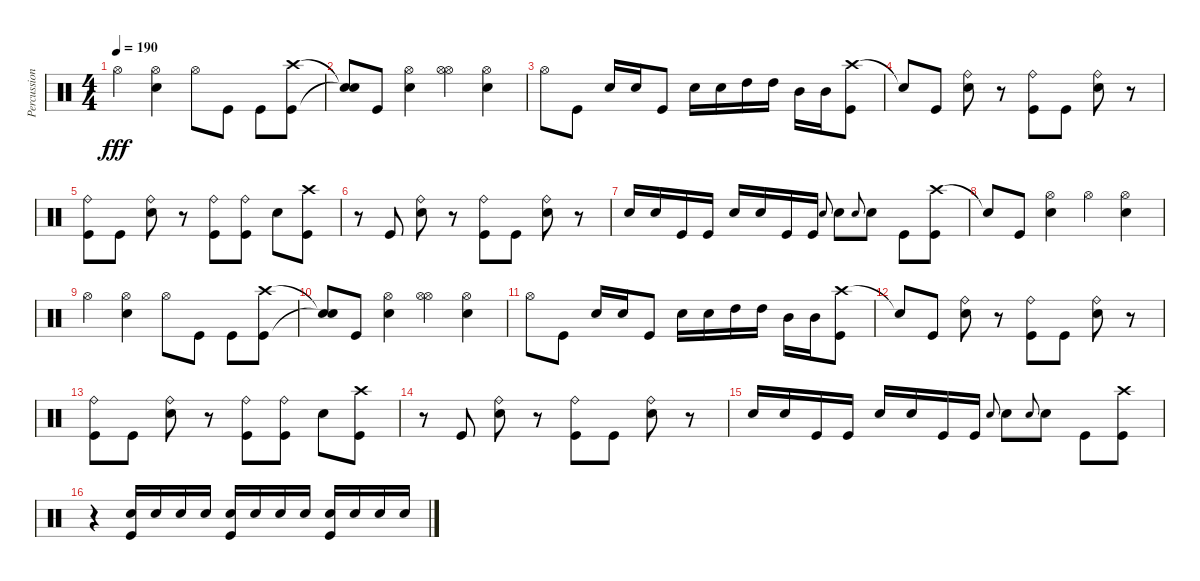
\track ("Percussion" "Percussion") {instrument percussion}
\staff {score}
\articulation defaults
\ts (4 4)
\tempo 190
\clef neutral
\ks c "Hi-Hat (open)".4{dy fff}
("Hi-Hat (open)" "Snare (hit) 2").4 "Hi-Hat (open)".8 "Kick (hit)".8 "Kick (hit)".8 ("Crash high (hit)" "Kick (hit)").8 |
("Snare (hit)"{t} "Snare (hit)"{t}).8 "Kick (hit)".8 ("Hi-Hat (open)" "Snare (hit) 2").4 ("Hi-Hat (open)" "Hi-Hat (open)").4 ("Hi-Hat (open)" "Snare (hit) 2").4 |
"Hi-Hat (open)".8 "Kick (hit)".8 "Snare (hit) 2".16 "Snare (hit) 2".16 "Kick (hit)".8 "Snare (hit) 2".16 "Snare (hit) 2".16 "High Tom (hit)".16 "High Tom (hit)".16 "Mid Tom (hit)".16 "Mid Tom (hit)".16 ("Crash high (hit)" "Kick (hit)").8 |
"Snare (hit)"{t}.8 "Kick (hit)".8 ("Ride (bell)" "Snare (hit) 2").8 r.8 ("Ride (bell)" "Kick (hit)").8 "Kick (hit)".8 ("Ride (bell)" "Snare (hit) 2").8 r.8 |
("Ride (bell)" "Kick (hit)").8 "Kick (hit)".8 ("Ride (bell)" "Snare (hit) 2").8 r.8 ("Ride (bell)" "Kick (hit)").8 ("Ride (bell)" "Kick (hit)").8 "Snare (hit) 2".8 ("Crash high (hit)" "Kick (hit)").8 |
r.8 "Kick (hit)".8 ("Ride (bell)" "Snare (hit) 2").8 r.8 ("Ride (bell)" "Kick (hit)").8 "Kick (hit)".8 ("Ride (bell)" "Snare (hit) 2").8 r.8 |
"Snare (hit) 2".16 "Snare (hit) 2".16 "Kick (hit)".16 "Kick (hit)".16 "Snare (hit) 2".16 "Snare (hit) 2".16 "Kick (hit)".16 "Kick (hit)".16 "Snare (hit) 2".8{gr onbeat} "Snare (hit) 2".8 "Snare (hit) 2".8{gr onbeat} "Snare (hit) 2".8 "Kick (hit)".8 ("Crash high (hit)" "Kick (hit)").8 |
"Snare (hit)"{t}.8 "Kick (hit)".8 ("Hi-Hat (open)" "Snare (hit) 2").4 "Hi-Hat (open)".4 ("Hi-Hat (open)" "Snare (hit) 2").4 |
"Hi-Hat (open)".4 ("Hi-Hat (open)" "Snare (hit) 2").4 "Hi-Hat (open)".8 "Kick (hit)".8 "Kick (hit)".8 ("Crash high (hit)" "Kick (hit)").8 |
("Snare (hit)"{t} "Snare (hit)"{t}).8 "Kick (hit)".8 ("Hi-Hat (open)" "Snare (hit) 2").4 ("Hi-Hat (open)" "Hi-Hat (open)").4 ("Hi-Hat (open)" "Snare (hit) 2").4 |
"Hi-Hat (open)".8 "Kick (hit)".8 "Snare (hit) 2".16 "Snare (hit) 2".16 "Kick (hit)".8 "Snare (hit) 2".16 "Snare (hit) 2".16 "High Tom (hit)".16 "High Tom (hit)".16 "Mid Tom (hit)".16 "Mid Tom (hit)".16 ("Crash high (hit)" "Kick (hit)").8 |
"Snare (hit)"{t}.8 "Kick (hit)".8 ("Ride (bell)" "Snare (hit) 2").8 r.8 ("Ride (bell)" "Kick (hit)").8 "Kick (hit)".8 ("Ride (bell)" "Snare (hit) 2").8 r.8 |
("Ride (bell)" "Kick (hit)").8 "Kick (hit)".8 ("Ride (bell)" "Snare (hit) 2").8 r.8 ("Ride (bell)" "Kick (hit)").8 ("Ride (bell)" "Kick (hit)").8 "Snare (hit) 2".8 ("Crash high (hit)" "Kick (hit)").8 |
r.8 "Kick (hit)".8 ("Ride (bell)" "Snare (hit) 2").8 r.8 ("Ride (bell)" "Kick (hit)").8 "Kick (hit)".8 ("Ride (bell)" "Snare (hit) 2").8 r.8 |
"Snare (hit) 2".16 "Snare (hit) 2".16 "Kick (hit)".16 "Kick (hit)".16 "Snare (hit) 2".16 "Snare (hit) 2".16 "Kick (hit)".16 "Kick (hit)".16 "Snare (hit) 2".8{gr onbeat} "Snare (hit) 2".8 "Snare (hit) 2".8{gr onbeat} "Snare (hit) 2".8 "Kick (hit)".8 ("Crash high (hit)" "Kick (hit)").8 |
r.4 ("Snare (hit) 2" "Kick (hit)").16 "Snare (hit) 2".16 "Snare (hit) 2".16 "Snare (hit) 2".16 ("Snare (hit) 2" "Kick (hit)").16 "Snare (hit) 2".16 "Snare (hit) 2".16 "Snare (hit) 2".16 ("Snare (hit) 2" "Kick (hit)").16 "Snare (hit) 2".16 "Snare (hit) 2".16 "Snare (hit) 2".16
